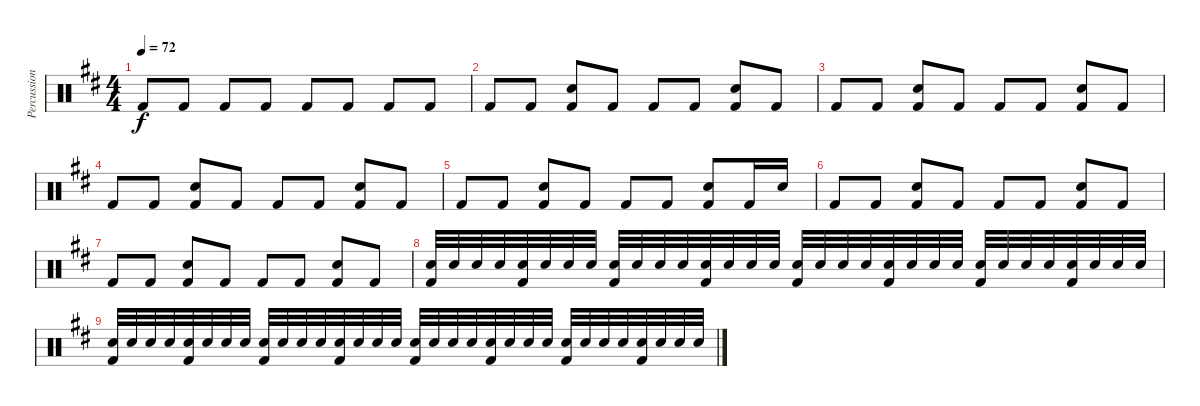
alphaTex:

\track ("Percussion" "Percussion") {instrument percussion}
\staff {score}
\articulation defaults
\ts (4 4)
\tempo 72
\clef neutral
\ks d "Kick (hit) 2".8{dy f} "Kick (hit) 2".8 "Kick (hit) 2".8 "Kick (hit) 2".8 "Kick (hit) 2".8 "Kick (hit) 2".8 "Kick (hit) 2".8 "Kick (hit) 2".8
|
"Kick (hit) 2".8 "Kick (hit) 2".8 ("Electric Snare (hit)" "Kick (hit) 2").8 "Kick (hit) 2".8 "Kick (hit) 2".8 "Kick (hit) 2".8 ("Electric Snare (hit)" "Kick (hit) 2").8 "Kick (hit) 2".8 |
"Kick (hit) 2".8 "Kick (hit) 2".8 ("Electric Snare (hit)" "Kick (hit) 2").8 "Kick (hit) 2".8 "Kick (hit) 2".8 "Kick (hit) 2".8 ("Electric Snare (hit)" "Kick (hit) 2").8 "Kick (hit) 2".8 |
"Kick (hit) 2".8 "Kick (hit) 2".8 ("Electric Snare (hit)" "Kick (hit) 2").8 "Kick (hit) 2".8 "Kick (hit) 2".8 "Kick (hit) 2".8 ("Electric Snare (hit)" "Kick (hit) 2").8 "Kick (hit) 2".8 |
"Kick (hit) 2".8 "Kick (hit) 2".8 ("Electric Snare (hit)" "Kick (hit) 2").8 "Kick (hit) 2".8 "Kick (hit) 2".8 "Kick (hit) 2".8 ("Electric Snare (hit)" "Kick (hit) 2").8 "Kick (hit) 2".16 "Electric Snare (hit)".16 |
"Kick (hit) 2".8 "Kick (hit) 2".8 ("Electric Snare (hit)" "Kick (hit) 2").8 "Kick (hit) 2".8 "Kick (hit) 2".8 "Kick (hit) 2".8 ("Electric Snare (hit)" "Kick (hit) 2").8 "Kick (hit) 2".8 |
"Kick (hit) 2".8 "Kick (hit) 2".8 ("Electric Snare (hit)" "Kick (hit) 2").8 "Kick (hit) 2".8 "Kick (hit) 2".8 "Kick (hit) 2".8 ("Electric Snare (hit)" "Kick (hit) 2").8 "Kick (hit) 2".8 |
("Electric Snare (hit)" "Kick (hit) 2").32 "Electric Snare (hit)".32 "Electric Snare (hit)".32 "Electric Snare (hit)".32 ("Electric Snare (hit)" "Kick (hit) 2").32 "Electric Snare (hit)".32 "Electric Snare (hit)".32 "Electric Snare (hit)".32 ("Electric Snare (hit)" "Kick (hit) 2").32 "Electric Snare (hit)".32 "Electric Snare (hit)".32 "Electric Snare (hit)".32 ("Electric Snare (hit)" "Kick (hit) 2").32 "Electric Snare (hit)".32 "Electric Snare (hit)".32 "Electric Snare (hit)".32 ("Electric Snare (hit)" "Kick (hit) 2").32 "Electric Snare (hit)".32 "Electric Snare (hit)".32 "Electric Snare (hit)".32 ("Electric Snare (hit)" "Kick (hit) 2").32 "Electric Snare (hit)".32 "Electric Snare (hit)".32 "Electric Snare (hit)".32 ("Electric Snare (hit)" "Kick (hit) 2").32 "Electric Snare (hit)".32 "Electric Snare (hit)".32 "Electric Snare (hit)".32 ("Electric Snare (hit)" "Kick (hit) 2").32 "Electric Snare (hit)".32 "Electric Snare (hit)".32 "Electric Snare (hit)".32 |
("Electric Snare (hit)" "Kick (hit) 2").32 "Electric Snare (hit)".32 "Electric Snare (hit)".32 "Electric Snare (hit)".32 ("Electric Snare (hit)" "Kick (hit) 2").32 "Electric Snare (hit)".32 "Electric Snare (hit)".32 "Electric Snare (hit)".32 ("Electric Snare (hit)" "Kick (hit) 2").32 "Electric Snare (hit)".32 "Electric Snare (hit)".32 "Electric Snare (hit)".32 ("Electric Snare (hit)" "Kick (hit) 2").32 "Electric Snare (hit)".32 "Electric Snare (hit)".32 "Electric Snare (hit)".32 ("Electric Snare (hit)" "Kick (hit) 2").32 "Electric Snare (hit)".32 "Electric Snare (hit)".32 "Electric Snare (hit)".32 ("Electric Snare (hit)" "Kick (hit) 2").32 "Electric Snare (hit)".32 "Electric Snare (hit)".32 "Electric Snare (hit)".32 ("Electric Snare (hit)" "Kick (hit) 2").32 "Electric Snare (hit)".32 "Electric Snare (hit)".32 "Electric Snare (hit)".32 ("Electric Snare (hit)" "Kick (hit) 2").32 "Electric Snare (hit)".32 "Electric Snare (hit)".32 "Electric Snare (hit)".32
